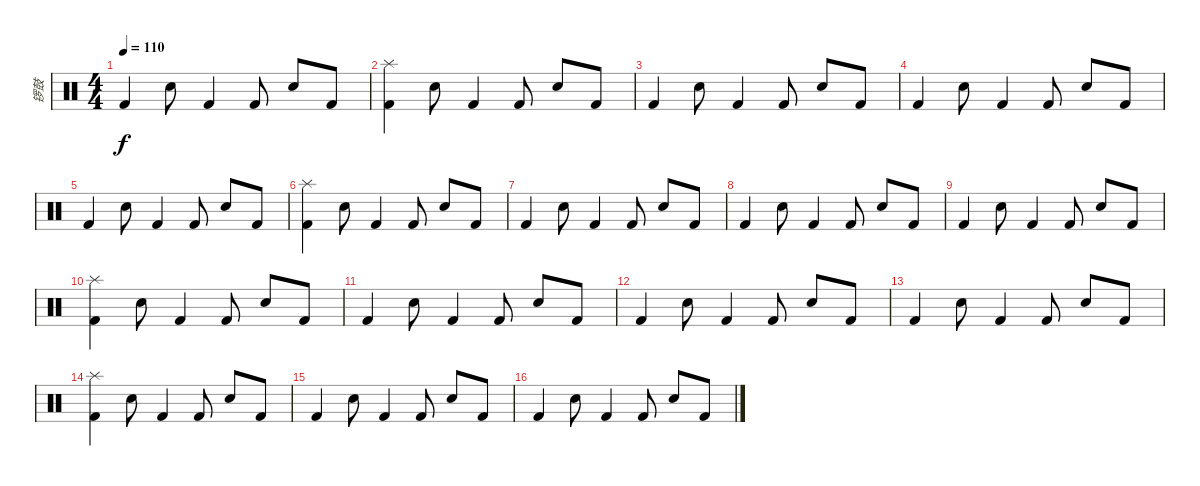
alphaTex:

\track ("锣鼓" "锣鼓") {instrument percussion}
\staff {score}
\articulation defaults
\ts (4 4)
\tempo 110
\clef neutral
\ks c "Kick (hit) 2".4{dy f} "Snare (hit) 2".8 "Kick (hit) 2".4 "Kick (hit) 2".8 "Snare (hit) 2".8 "Kick (hit) 2".8
|
("Kick (hit) 2" "Splash (hit)").4 "Snare (hit) 2".8 "Kick (hit) 2".4 "Kick (hit) 2".8 "Snare (hit) 2".8 "Kick (hit) 2".8 |
"Kick (hit) 2".4 "Snare (hit) 2".8 "Kick (hit) 2".4 "Kick (hit) 2".8 "Snare (hit) 2".8 "Kick (hit) 2".8 |
"Kick (hit) 2".4 "Snare (hit) 2".8 "Kick (hit) 2".4 "Kick (hit) 2".8 "Snare (hit) 2".8 "Kick (hit) 2".8 |
"Kick (hit) 2".4 "Snare (hit) 2".8 "Kick (hit) 2".4 "Kick (hit) 2".8 "Snare (hit) 2".8 "Kick (hit) 2".8 |
("Kick (hit) 2" "Splash (hit)").4 "Snare (hit) 2".8 "Kick (hit) 2".4 "Kick (hit) 2".8 "Snare (hit) 2".8 "Kick (hit) 2".8 |
"Kick (hit) 2".4 "Snare (hit) 2".8 "Kick (hit) 2".4 "Kick (hit) 2".8 "Snare (hit) 2".8 "Kick (hit) 2".8 |
"Kick (hit) 2".4 "Snare (hit) 2".8 "Kick (hit) 2".4 "Kick (hit) 2".8 "Snare (hit) 2".8 "Kick (hit) 2".8 |
"Kick (hit) 2".4 "Snare (hit) 2".8 "Kick (hit) 2".4 "Kick (hit) 2".8 "Snare (hit) 2".8 "Kick (hit) 2".8 |
("Kick (hit) 2" "Splash (hit)").4 "Snare (hit) 2".8 "Kick (hit) 2".4 "Kick (hit) 2".8 "Snare (hit) 2".8 "Kick (hit) 2".8 |
"Kick (hit) 2".4 "Snare (hit) 2".8 "Kick (hit) 2".4 "Kick (hit) 2".8 "Snare (hit) 2".8 "Kick (hit) 2".8 |
"Kick (hit) 2".4 "Snare (hit) 2".8 "Kick (hit) 2".4 "Kick (hit) 2".8 "Snare (hit) 2".8 "Kick (hit) 2".8 |
"Kick (hit) 2".4 "Snare (hit) 2".8 "Kick (hit) 2".4 "Kick (hit) 2".8 "Snare (hit) 2".8 "Kick (hit) 2".8 |
("Kick (hit) 2" "Splash (hit)").4 "Snare (hit) 2".8 "Kick (hit) 2".4 "Kick (hit) 2".8 "Snare (hit) 2".8 "Kick (hit) 2".8 |
"Kick (hit) 2".4 "Snare (hit) 2".8 "Kick (hit) 2".4 "Kick (hit) 2".8 "Snare (hit) 2".8 "Kick (hit) 2".8 |
"Kick (hit) 2".4 "Snare (hit) 2".8 "Kick (hit) 2".4 "Kick (hit) 2".8 "Snare (hit) 2".8 "Kick (hit) 2".8
